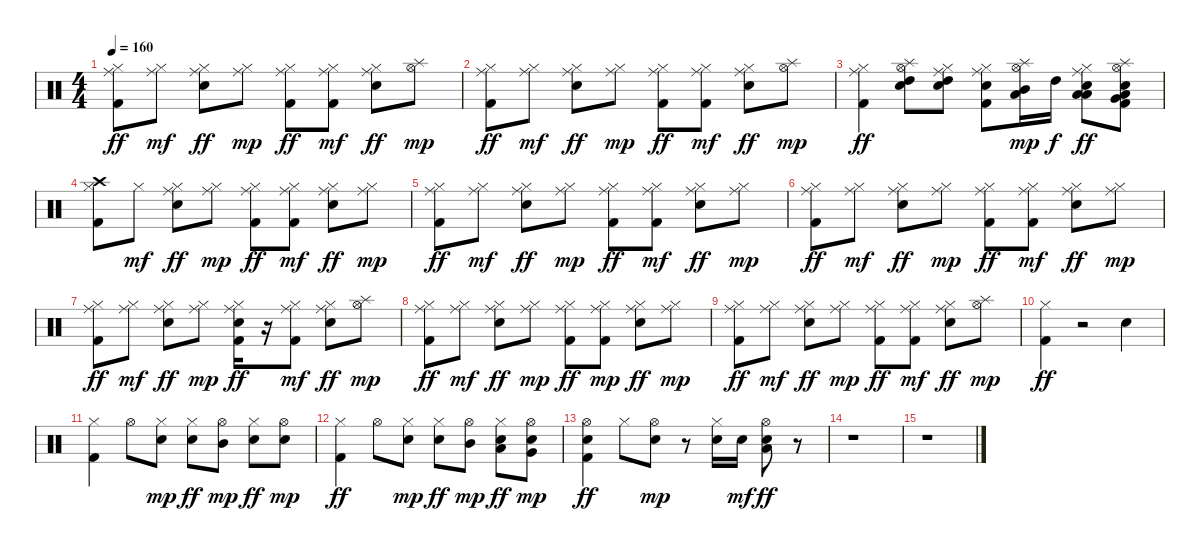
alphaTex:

\track "" {instrument percussion}
\staff {score}
\articulation defaults
\ts (4 4)
\tempo 160
\clef neutral
\ks c
("Ride (middle)" "Hi-Hat (closed)" "Kick (hit) 2").8{dy ff} ("Hi-Hat (closed)" "Ride (middle)").8{dy mf} ("Snare (hit) 2" "Hi-Hat (closed)" "Ride (middle)").8{dy ff} ("Hi-Hat (closed)" "Ride (middle)").8{dy mp} ("Hi-Hat (closed)" "Ride (middle)" "Kick (hit) 2").8{dy ff} ("Hi-Hat (closed)" "Ride (middle)" "Kick (hit) 2").8{dy mf} ("Hi-Hat (closed)" "Ride (middle)" "Snare (hit) 2").8{dy ff} ("Splash (hit)" "Hi-Hat (open)").8{dy mp} |
("Hi-Hat (closed)" "Ride (middle)" "Kick (hit) 2").8{dy ff} ("Ride (middle)" "Hi-Hat (closed)").8{dy mf} ("Snare (hit) 2" "Ride (middle)" "Hi-Hat (closed)").8{dy ff} ("Ride (middle)" "Hi-Hat (closed)").8{dy mp} ("Hi-Hat (closed)" "Ride (middle)" "Kick (hit) 2").8{dy ff} ("Hi-Hat (closed)" "Ride (middle)" "Kick (hit) 2").8{dy mf} ("Ride (middle)" "Snare (hit) 2" "Hi-Hat (closed)").8{dy ff} ("Hi-Hat (open)" "Splash (hit)").8{dy mp} |
("Ride (middle)" "Hi-Hat (closed)" "Kick (hit) 2").4{dy ff} ("Hi-Hat (open)" "Splash (hit)" "Snare (hit) 2" "High Tom (hit)").8 ("Hi-Hat (closed)" "Snare (hit) 2" "Ride (middle)" "High Tom (hit)").8 ("Ride (middle)" "Hi-Hat (closed)" "Kick (hit) 2" "Snare (hit) 2").8 ("Hi-Hat (open)" "Splash (hit)" "Mid Tom (hit)" "Low Tom (hit)").16{dy mp} "High Tom (hit)".16{dy f} ("Hi-Hat (closed)" "Snare (hit) 2" "Low Tom (hit)" "Low Tom (hit)" "Ride (middle)").8{dy ff} ("Very Low Tom (hit)" "Snare (hit) 2" "Hi-Hat (open)" "Splash (hit)" "Low Floor Tom (hit)" "Kick (hit) 2").8 |
("Kick (hit) 2" "Crash high (hit)" "Hi-Hat (closed)").8 "Hi-Hat (closed)".8{dy mf} ("Hi-Hat (closed)" "Ride (middle)" "Snare (hit) 2").8{dy ff} ("Ride (middle)" "Hi-Hat (closed)").8{dy mp} ("Ride (middle)" "Kick (hit) 2" "Hi-Hat (closed)").8{dy ff} ("Hi-Hat (closed)" "Ride (middle)" "Kick (hit) 2").8{dy mf} ("Hi-Hat (closed)" "Ride (middle)" "Snare (hit) 2").8{dy ff} ("Ride (middle)" "Hi-Hat (closed)").8{dy mp} |
("Hi-Hat (closed)" "Ride (middle)" "Kick (hit) 2").8{dy ff} ("Ride (middle)" "Hi-Hat (closed)").8{dy mf} ("Snare (hit) 2" "Hi-Hat (closed)" "Ride (middle)").8{dy ff} ("Ride (middle)" "Hi-Hat (closed)").8{dy mp} ("Ride (middle)" "Hi-Hat (closed)" "Kick (hit) 2").8{dy ff} ("Ride (middle)" "Hi-Hat (closed)" "Kick (hit) 2").8{dy mf} ("Hi-Hat (closed)" "Snare (hit) 2" "Ride (middle)").8{dy ff} ("Ride (middle)" "Hi-Hat (closed)").8{dy mp} |
("Kick (hit) 2" "Hi-Hat (closed)" "Ride (middle)").8{dy ff} ("Ride (middle)" "Hi-Hat (closed)").8{dy mf} ("Ride (middle)" "Hi-Hat (closed)" "Snare (hit) 2").8{dy ff} ("Ride (middle)" "Hi-Hat (closed)").8{dy mp} ("Kick (hit) 2" "Ride (middle)" "Hi-Hat (closed)").8{dy ff} ("Hi-Hat (closed)" "Ride (middle)" "Kick (hit) 2").8{dy mf} ("Ride (middle)" "Snare (hit) 2" "Hi-Hat (closed)").8{dy ff} ("Hi-Hat (closed)" "Ride (middle)").8{dy mp} |
("Ride (middle)" "Hi-Hat (closed)" "Kick (hit) 2").8{dy ff} ("Hi-Hat (closed)" "Ride (middle)").8{dy mf} ("Snare (hit) 2" "Hi-Hat (closed)" "Ride (middle)").8{dy ff} ("Hi-Hat (closed)" "Ride (middle)").8{dy mp} ("Ride (middle)" "Hi-Hat (closed)" "Kick (hit) 2" "Snare (hit) 2").16{dy ff} r.16 ("Ride (middle)" "Hi-Hat (closed)" "Kick (hit) 2").8{dy mf} ("Ride (middle)" "Snare (hit) 2" "Hi-Hat (closed)").8{dy ff} ("Splash (hit)" "Hi-Hat (open)").8{dy mp} |
("Ride (middle)" "Kick (hit) 2" "Hi-Hat (closed)").8{dy ff} ("Ride (middle)" "Hi-Hat (closed)").8{dy mf} ("Snare (hit) 2" "Ride (middle)" "Hi-Hat (closed)").8{dy ff} ("Ride (middle)" "Hi-Hat (closed)").8{dy mp} ("Kick (hit) 2" "Ride (middle)" "Hi-Hat (closed)").8{dy ff} ("Ride (middle)" "Kick (hit) 2" "Hi-Hat (closed)").8{dy mp} ("Ride (middle)" "Snare (hit) 2" "Hi-Hat (closed)").8{dy ff} ("Hi-Hat (closed)" "Ride (middle)").8{dy mp} |
("Hi-Hat (closed)" "Ride (middle)" "Kick (hit) 2").8{dy ff} ("Ride (middle)" "Hi-Hat (closed)").8{dy mf} ("Snare (hit) 2" "Ride (middle)" "Hi-Hat (closed)").8{dy ff} ("Ride (middle)" "Hi-Hat (closed)").8{dy mp} ("Ride (middle)" "Hi-Hat (closed)" "Kick (hit) 2").8{dy ff} ("Hi-Hat (closed)" "Ride (middle)" "Kick (hit) 2").8{dy mf} ("Ride (middle)" "Hi-Hat (closed)" "Snare (hit) 2").8{dy ff} ("Hi-Hat (open)" "Splash (hit)").8{dy mp} |
("Hi-Hat (closed)" "Kick (hit) 2").4{dy ff} r.2 "Snare (hit) 2".4 |
("Kick (hit) 2" "Hi-Hat (closed)").4 "Hi-Hat (open)".8 ("Snare (hit) 2" "Hi-Hat (closed)").8{dy mp} ("Hi-Hat (closed)" "Snare (hit) 2").8{dy ff} ("Hi-Hat (open)" "Mid Tom (hit)").8{dy mp} ("Hi-Hat (closed)" "Snare (hit) 2").8{dy ff} ("Snare (hit) 2" "Hi-Hat (open)").8{dy mp} |
("Kick (hit) 2" "Hi-Hat (closed)").4{dy ff} "Hi-Hat (open)".8 ("Hi-Hat (closed)" "Snare (hit) 2").8{dy mp} ("Hi-Hat (closed)" "Snare (hit) 2").8{dy ff} ("Hi-Hat (open)" "Mid Tom (hit)").8{dy mp} ("Low Tom (hit)" "Snare (hit) 2" "Hi-Hat (closed)").8{dy ff} ("Very Low Tom (hit)" "Snare (hit) 2" "Hi-Hat (open)").8{dy mp} |
("Hi-Hat (open)" "Kick (hit) 2" "Snare (hit) 2").4{dy ff} "Hi-Hat (closed)".8 ("Snare (hit) 2" "Hi-Hat (open)").8{dy mp} r.8 ("Hi-Hat (closed)" "Snare (hit) 2").16 "Snare (hit) 2".16{dy mf} ("Snare (hit) 2" "Hi-Hat (open)" "Low Tom (hit)").8{dy ff} r.8 |
r.1 |
r.1
